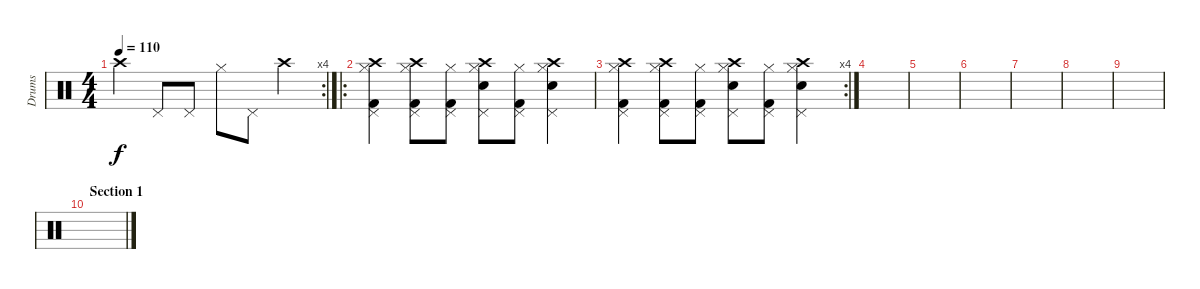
\track ("Drums" "Drums") {instrument percussion}
\staff {score}
\articulation defaults
\rc 4
\ts (4 4)
\tempo 110
\clef neutral
\ks c "Crash high (hit)".4{dy f} "Pedal Hi-Hat (hit)".8 "Pedal Hi-Hat (hit)".8 "Hi-Hat (closed)".8 "Pedal Hi-Hat (hit)".8 "Crash high (hit)".4
|
\ro
("Crash high (hit)" "Pedal Hi-Hat (hit)" "Hi-Hat (closed)" "Kick (hit) 2").4 ("Pedal Hi-Hat (hit)" "Crash high (hit)" "Hi-Hat (closed)" "Kick (hit) 2").8 ("Pedal Hi-Hat (hit)" "Hi-Hat (closed)" "Kick (hit) 2").8 ("Hi-Hat (closed)" "Crash high (hit)" "Pedal Hi-Hat (hit)" "Electric Snare (hit)").8 ("Pedal Hi-Hat (hit)" "Hi-Hat (closed)" "Kick (hit) 2").8 ("Crash high (hit)" "Pedal Hi-Hat (hit)" "Hi-Hat (closed)" "Electric Snare (hit)").4 |
\rc 4
("Crash high (hit)" "Pedal Hi-Hat (hit)" "Hi-Hat (closed)" "Kick (hit) 2").4 ("Pedal Hi-Hat (hit)" "Crash high (hit)" "Hi-Hat (closed)" "Kick (hit) 2").8 ("Pedal Hi-Hat (hit)" "Hi-Hat (closed)" "Kick (hit) 2").8 ("Hi-Hat (closed)" "Crash high (hit)" "Pedal Hi-Hat (hit)" "Electric Snare (hit)").8 ("Pedal Hi-Hat (hit)" "Hi-Hat (closed)" "Kick (hit) 2").8 ("Crash high (hit)" "Pedal Hi-Hat (hit)" "Hi-Hat (closed)" "Electric Snare (hit)").4 |
|
|
|
|
|
|
\section ("" "Section 1")
